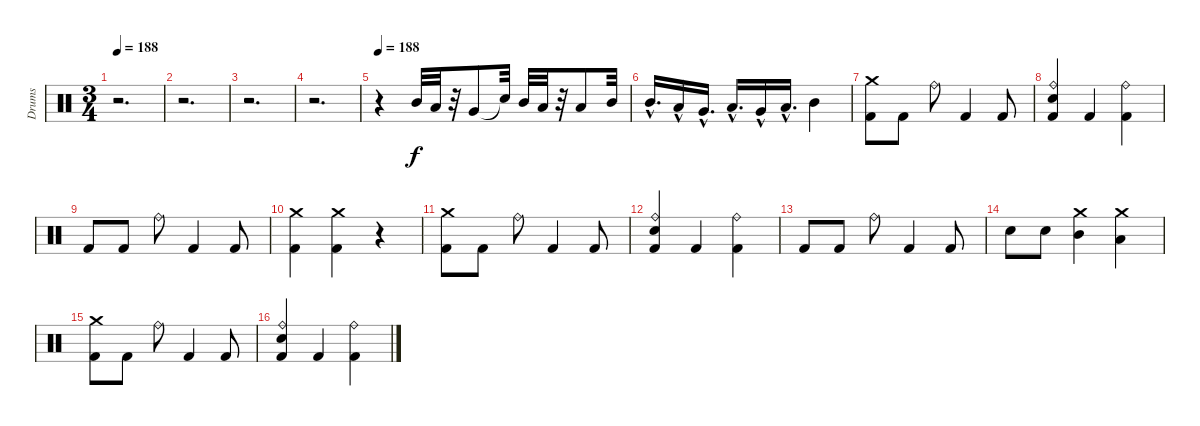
\track ("Drums" "Drums") {instrument percussion}
\staff {score}
\articulation defaults
\ts (3 4)
\tempo 188
\clef neutral
\ks c
r.2{d dy f} |
r.2{d} |
r.2{d} |
r.2{d} |
\tempo 188
r.4 "Mid Tom (hit)".32 "Low Tom (hit)".32 r.32 "Very Low Tom (hit)".8 "Snare (hit)"{t}.32 "Mid Tom (hit)".32 "Low Tom (hit)".32 r.32 "Low Floor Tom (hit)".8 "Mid Tom (hit)".32 |
"Mid Tom (hit)"{hac}.16{d} "Low Tom (hit)"{hac}.16 "Very Low Tom (hit)"{hac}.16{d} "Low Floor Tom (hit)"{hac}.16{d} "Very Low Tom (hit)"{hac}.16 "Low Tom (hit)"{hac}.16{d} "Mid Tom (hit)".4 |
("Crash medium (hit)" "Kick (hit) 2").8 "Kick (hit) 2".8 "Ride (bell)".8 "Kick (hit) 2".4 "Kick (hit) 2".8 |
("Electric Snare (hit)" "Ride (bell)" "Kick (hit) 2").4 "Kick (hit) 2".4 ("Ride (bell)" "Kick (hit) 2").4 |
"Kick (hit) 2".8 "Kick (hit) 2".8 "Ride (bell)".8 "Kick (hit) 2".4 "Kick (hit) 2".8 |
("Crash medium (hit)" "Kick (hit) 2").4 ("Crash medium (hit)" "Kick (hit) 2").4 r.4 |
("Crash medium (hit)" "Kick (hit) 2").8 "Kick (hit) 2".8 "Ride (bell)".8 "Kick (hit) 2".4 "Kick (hit) 2".8 |
("Electric Snare (hit)" "Ride (bell)" "Kick (hit) 2").4 "Kick (hit) 2".4 ("Ride (bell)" "Kick (hit) 2").4 |
"Kick (hit) 2".8 "Kick (hit) 2".8 "Ride (bell)".8 "Kick (hit) 2".4 "Kick (hit) 2".8 |
"Electric Snare (hit)".8 "Electric Snare (hit)".8 ("Crash medium (hit)" "Mid Tom (hit)").4 ("Crash medium (hit)" "Low Tom (hit)").4 |
("Crash medium (hit)" "Kick (hit) 2").8 "Kick (hit) 2".8 "Ride (bell)".8 "Kick (hit) 2".4 "Kick (hit) 2".8 |
("Electric Snare (hit)" "Ride (bell)" "Kick (hit) 2").4 "Kick (hit) 2".4 ("Ride (bell)" "Kick (hit) 2").4
